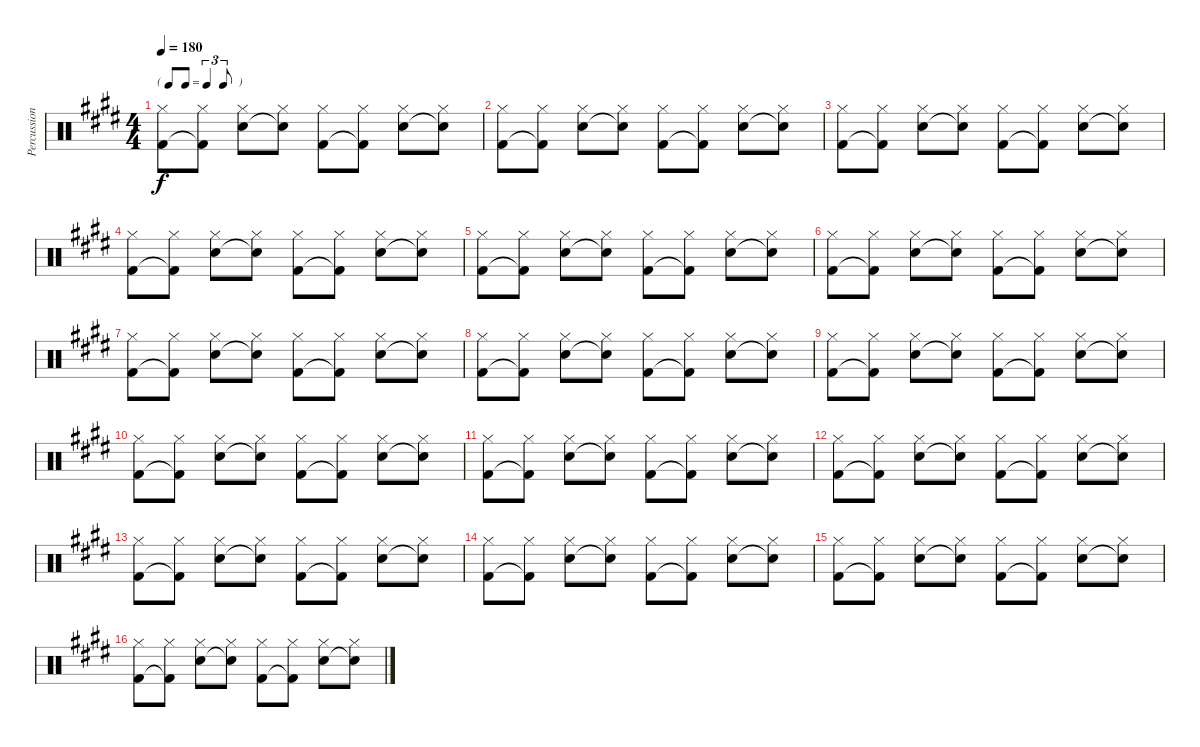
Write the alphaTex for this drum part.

\track ("Percussion" "Percussion") {instrument percussion}
\staff {score}
\articulation defaults
\ts (4 4)
\tf triplet8th
\tempo 180
\clef neutral
\ks e
("Hi-Hat (closed)" "Kick (hit) 2").8{dy f} ("Hi-Hat (closed)" "Kick (hit) 2"{t}).8 ("Hi-Hat (closed)" "Snare (hit) 2").8 ("Hi-Hat (closed)" "Snare (hit) 2"{t}).8 ("Hi-Hat (closed)" "Kick (hit) 2").8 ("Hi-Hat (closed)" "Kick (hit) 2"{t}).8 ("Hi-Hat (closed)" "Snare (hit) 2").8 ("Hi-Hat (closed)" "Snare (hit) 2"{t}).8 |
("Hi-Hat (closed)" "Kick (hit) 2").8 ("Hi-Hat (closed)" "Kick (hit) 2"{t}).8 ("Hi-Hat (closed)" "Snare (hit) 2").8 ("Hi-Hat (closed)" "Snare (hit) 2"{t}).8 ("Hi-Hat (closed)" "Kick (hit) 2").8 ("Hi-Hat (closed)" "Kick (hit) 2"{t}).8 ("Hi-Hat (closed)" "Snare (hit) 2").8 ("Hi-Hat (closed)" "Snare (hit) 2"{t}).8 |
("Hi-Hat (closed)" "Kick (hit) 2").8 ("Hi-Hat (closed)" "Kick (hit) 2"{t}).8 ("Hi-Hat (closed)" "Snare (hit) 2").8 ("Hi-Hat (closed)" "Snare (hit) 2"{t}).8 ("Hi-Hat (closed)" "Kick (hit) 2").8 ("Hi-Hat (closed)" "Kick (hit) 2"{t}).8 ("Hi-Hat (closed)" "Snare (hit) 2").8 ("Hi-Hat (closed)" "Snare (hit) 2"{t}).8 |
("Hi-Hat (closed)" "Kick (hit) 2").8 ("Hi-Hat (closed)" "Kick (hit) 2"{t}).8 ("Hi-Hat (closed)" "Snare (hit) 2").8 ("Hi-Hat (closed)" "Snare (hit) 2"{t}).8 ("Hi-Hat (closed)" "Kick (hit) 2").8 ("Hi-Hat (closed)" "Kick (hit) 2"{t}).8 ("Hi-Hat (closed)" "Snare (hit) 2").8 ("Hi-Hat (closed)" "Snare (hit) 2"{t}).8 |
("Hi-Hat (closed)" "Kick (hit) 2").8 ("Hi-Hat (closed)" "Kick (hit) 2"{t}).8 ("Hi-Hat (closed)" "Snare (hit) 2").8 ("Hi-Hat (closed)" "Snare (hit) 2"{t}).8 ("Hi-Hat (closed)" "Kick (hit) 2").8 ("Hi-Hat (closed)" "Kick (hit) 2"{t}).8 ("Hi-Hat (closed)" "Snare (hit) 2").8 ("Hi-Hat (closed)" "Snare (hit) 2"{t}).8 |
("Hi-Hat (closed)" "Kick (hit) 2").8 ("Hi-Hat (closed)" "Kick (hit) 2"{t}).8 ("Hi-Hat (closed)" "Snare (hit) 2").8 ("Hi-Hat (closed)" "Snare (hit) 2"{t}).8 ("Hi-Hat (closed)" "Kick (hit) 2").8 ("Hi-Hat (closed)" "Kick (hit) 2"{t}).8 ("Hi-Hat (closed)" "Snare (hit) 2").8 ("Hi-Hat (closed)" "Snare (hit) 2"{t}).8 |
("Hi-Hat (closed)" "Kick (hit) 2").8 ("Hi-Hat (closed)" "Kick (hit) 2"{t}).8 ("Hi-Hat (closed)" "Snare (hit) 2").8 ("Hi-Hat (closed)" "Snare (hit) 2"{t}).8 ("Hi-Hat (closed)" "Kick (hit) 2").8 ("Hi-Hat (closed)" "Kick (hit) 2"{t}).8 ("Hi-Hat (closed)" "Snare (hit) 2").8 ("Hi-Hat (closed)" "Snare (hit) 2"{t}).8 |
("Hi-Hat (closed)" "Kick (hit) 2").8 ("Hi-Hat (closed)" "Kick (hit) 2"{t}).8 ("Hi-Hat (closed)" "Snare (hit) 2").8 ("Hi-Hat (closed)" "Snare (hit) 2"{t}).8 ("Hi-Hat (closed)" "Kick (hit) 2").8 ("Hi-Hat (closed)" "Kick (hit) 2"{t}).8 ("Hi-Hat (closed)" "Snare (hit) 2").8 ("Hi-Hat (closed)" "Snare (hit) 2"{t}).8 |
("Hi-Hat (closed)" "Kick (hit) 2").8 ("Hi-Hat (closed)" "Kick (hit) 2"{t}).8 ("Hi-Hat (closed)" "Snare (hit) 2").8 ("Hi-Hat (closed)" "Snare (hit) 2"{t}).8 ("Hi-Hat (closed)" "Kick (hit) 2").8 ("Hi-Hat (closed)" "Kick (hit) 2"{t}).8 ("Hi-Hat (closed)" "Snare (hit) 2").8 ("Hi-Hat (closed)" "Snare (hit) 2"{t}).8 |
("Hi-Hat (closed)" "Kick (hit) 2").8 ("Hi-Hat (closed)" "Kick (hit) 2"{t}).8 ("Hi-Hat (closed)" "Snare (hit) 2").8 ("Hi-Hat (closed)" "Snare (hit) 2"{t}).8 ("Hi-Hat (closed)" "Kick (hit) 2").8 ("Hi-Hat (closed)" "Kick (hit) 2"{t}).8 ("Hi-Hat (closed)" "Snare (hit) 2").8 ("Hi-Hat (closed)" "Snare (hit) 2"{t}).8 |
("Hi-Hat (closed)" "Kick (hit) 2").8 ("Hi-Hat (closed)" "Kick (hit) 2"{t}).8 ("Hi-Hat (closed)" "Snare (hit) 2").8 ("Hi-Hat (closed)" "Snare (hit) 2"{t}).8 ("Hi-Hat (closed)" "Kick (hit) 2").8 ("Hi-Hat (closed)" "Kick (hit) 2"{t}).8 ("Hi-Hat (closed)" "Snare (hit) 2").8 ("Hi-Hat (closed)" "Snare (hit) 2"{t}).8 |
("Hi-Hat (closed)" "Kick (hit) 2").8 ("Hi-Hat (closed)" "Kick (hit) 2"{t}).8 ("Hi-Hat (closed)" "Snare (hit) 2").8 ("Hi-Hat (closed)" "Snare (hit) 2"{t}).8 ("Hi-Hat (closed)" "Kick (hit) 2").8 ("Hi-Hat (closed)" "Kick (hit) 2"{t}).8 ("Hi-Hat (closed)" "Snare (hit) 2").8 ("Hi-Hat (closed)" "Snare (hit) 2"{t}).8 |
("Hi-Hat (closed)" "Kick (hit) 2").8 ("Hi-Hat (closed)" "Kick (hit) 2"{t}).8 ("Hi-Hat (closed)" "Snare (hit) 2").8 ("Hi-Hat (closed)" "Snare (hit) 2"{t}).8 ("Hi-Hat (closed)" "Kick (hit) 2").8 ("Hi-Hat (closed)" "Kick (hit) 2"{t}).8 ("Hi-Hat (closed)" "Snare (hit) 2").8 ("Hi-Hat (closed)" "Snare (hit) 2"{t}).8 |
("Hi-Hat (closed)" "Kick (hit) 2").8 ("Hi-Hat (closed)" "Kick (hit) 2"{t}).8 ("Hi-Hat (closed)" "Snare (hit) 2").8 ("Hi-Hat (closed)" "Snare (hit) 2"{t}).8 ("Hi-Hat (closed)" "Kick (hit) 2").8 ("Hi-Hat (closed)" "Kick (hit) 2"{t}).8 ("Hi-Hat (closed)" "Snare (hit) 2").8 ("Hi-Hat (closed)" "Snare (hit) 2"{t}).8 |
("Hi-Hat (closed)" "Kick (hit) 2").8 ("Hi-Hat (closed)" "Kick (hit) 2"{t}).8 ("Hi-Hat (closed)" "Snare (hit) 2").8 ("Hi-Hat (closed)" "Snare (hit) 2"{t}).8 ("Hi-Hat (closed)" "Kick (hit) 2").8 ("Hi-Hat (closed)" "Kick (hit) 2"{t}).8 ("Hi-Hat (closed)" "Snare (hit) 2").8 ("Hi-Hat (closed)" "Snare (hit) 2"{t}).8 |
("Hi-Hat (closed)" "Kick (hit) 2").8 ("Hi-Hat (closed)" "Kick (hit) 2"{t}).8 ("Hi-Hat (closed)" "Snare (hit) 2").8 ("Hi-Hat (closed)" "Snare (hit) 2"{t}).8 ("Hi-Hat (closed)" "Kick (hit) 2").8 ("Hi-Hat (closed)" "Kick (hit) 2"{t}).8 ("Hi-Hat (closed)" "Snare (hit) 2").8 ("Hi-Hat (closed)" "Snare (hit) 2"{t}).8
